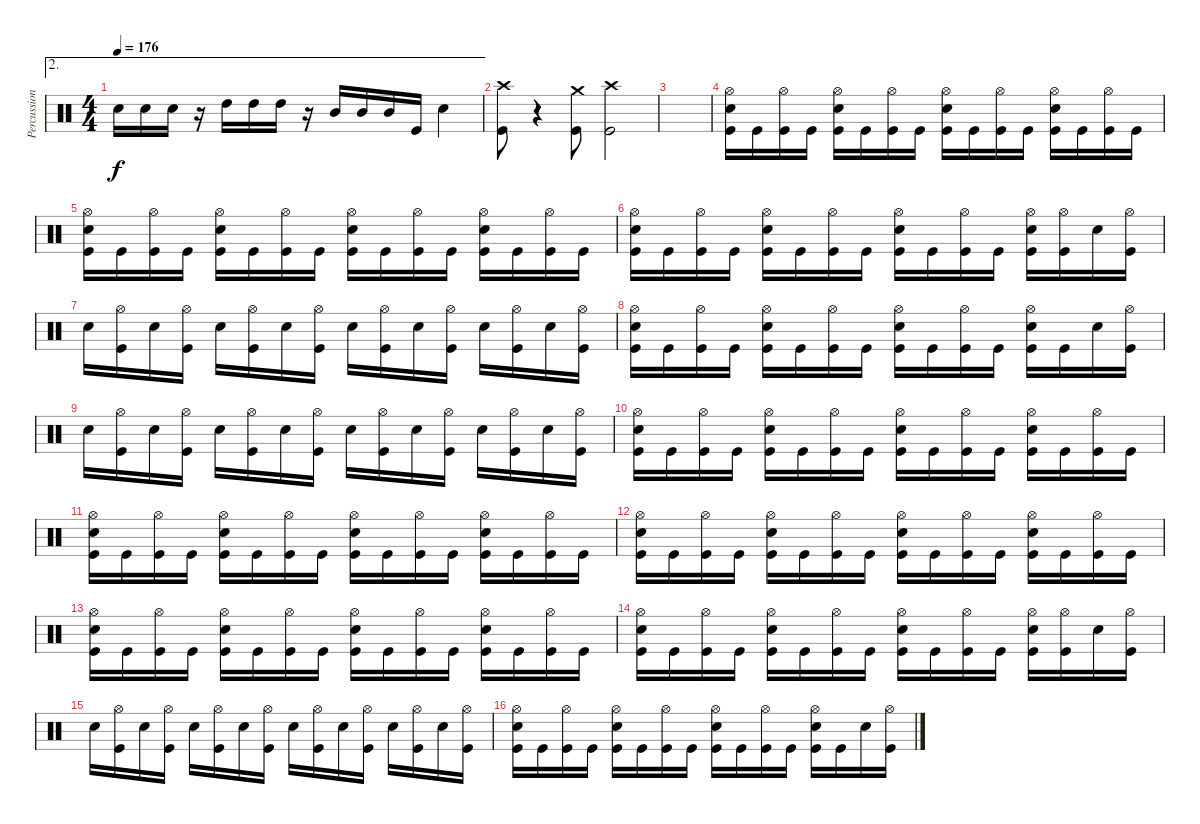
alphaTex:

\track ("Percussions" "Percussion") {instrument percussion}
\staff {score}
\articulation defaults
\ae 2
\ts (4 4)
\tempo 176
\clef neutral
\ks c "Snare (hit) 2".16{dy f} "Snare (hit) 2".16 "Snare (hit) 2".16
r.16 "High Tom (hit)".16 "High Tom (hit)".16 "High Tom (hit)".16 r.16 "Mid Tom (hit)".16 "Mid Tom (hit)".16 "Mid Tom (hit)".16 "Kick (hit)".16 "Snare (hit) 2".4 |
("Crash high (hit)" "Kick (hit)").8 r.4 ("Crash medium (hit)" "Kick (hit)").8 ("Crash high (hit)" "Kick (hit)").2 |
|
("Hi-Hat (open)" "Snare (hit) 2" "Kick (hit)").16 "Kick (hit)".16 ("Hi-Hat (open)" "Kick (hit)").16 "Kick (hit)".16 ("Hi-Hat (open)" "Snare (hit) 2" "Kick (hit)").16 "Kick (hit)".16 ("Hi-Hat (open)" "Kick (hit)").16 "Kick (hit)".16 ("Hi-Hat (open)" "Snare (hit) 2" "Kick (hit)").16 "Kick (hit)".16 ("Hi-Hat (open)" "Kick (hit)").16 "Kick (hit)".16 ("Hi-Hat (open)" "Snare (hit) 2" "Kick (hit)").16 "Kick (hit)".16 ("Hi-Hat (open)" "Kick (hit)").16 "Kick (hit)".16 |
("Hi-Hat (open)" "Snare (hit) 2" "Kick (hit)").16 "Kick (hit)".16 ("Hi-Hat (open)" "Kick (hit)").16 "Kick (hit)".16 ("Hi-Hat (open)" "Snare (hit) 2" "Kick (hit)").16 "Kick (hit)".16 ("Hi-Hat (open)" "Kick (hit)").16 "Kick (hit)".16 ("Hi-Hat (open)" "Snare (hit) 2" "Kick (hit)").16 "Kick (hit)".16 ("Hi-Hat (open)" "Kick (hit)").16 "Kick (hit)".16 ("Hi-Hat (open)" "Snare (hit) 2" "Kick (hit)").16 "Kick (hit)".16 ("Hi-Hat (open)" "Kick (hit)").16 "Kick (hit)".16 |
("Hi-Hat (open)" "Snare (hit) 2" "Kick (hit)").16 "Kick (hit)".16 ("Hi-Hat (open)" "Kick (hit)").16 "Kick (hit)".16 ("Hi-Hat (open)" "Snare (hit) 2" "Kick (hit)").16 "Kick (hit)".16 ("Hi-Hat (open)" "Kick (hit)").16 "Kick (hit)".16 ("Hi-Hat (open)" "Snare (hit) 2" "Kick (hit)").16 "Kick (hit)".16 ("Hi-Hat (open)" "Kick (hit)").16 "Kick (hit)".16 ("Hi-Hat (open)" "Snare (hit) 2" "Kick (hit)").16 ("Hi-Hat (open)" "Kick (hit)").16 "Snare (hit) 2".16 ("Hi-Hat (open)" "Kick (hit)").16 |
"Snare (hit) 2".16 ("Hi-Hat (open)" "Kick (hit)").16 "Snare (hit) 2".16 ("Hi-Hat (open)" "Kick (hit)").16 "Snare (hit) 2".16 ("Hi-Hat (open)" "Kick (hit)").16 "Snare (hit) 2".16 ("Hi-Hat (open)" "Kick (hit)").16 "Snare (hit) 2".16 ("Hi-Hat (open)" "Kick (hit)").16 "Snare (hit) 2".16 ("Hi-Hat (open)" "Kick (hit)").16 "Snare (hit) 2".16 ("Hi-Hat (open)" "Kick (hit)").16 "Snare (hit) 2".16 ("Hi-Hat (open)" "Kick (hit)").16 |
("Hi-Hat (open)" "Snare (hit) 2" "Kick (hit)").16 "Kick (hit)".16 ("Hi-Hat (open)" "Kick (hit)").16 "Kick (hit)".16 ("Hi-Hat (open)" "Snare (hit) 2" "Kick (hit)").16 "Kick (hit)".16 ("Hi-Hat (open)" "Kick (hit)").16 "Kick (hit)".16 ("Hi-Hat (open)" "Snare (hit) 2" "Kick (hit)").16 "Kick (hit)".16 ("Hi-Hat (open)" "Kick (hit)").16 "Kick (hit)".16 ("Hi-Hat (open)" "Snare (hit) 2" "Kick (hit)").16 "Kick (hit)".16 "Snare (hit) 2".16 ("Hi-Hat (open)" "Kick (hit)").16 |
"Snare (hit) 2".16 ("Hi-Hat (open)" "Kick (hit)").16 "Snare (hit) 2".16 ("Hi-Hat (open)" "Kick (hit)").16 "Snare (hit) 2".16 ("Hi-Hat (open)" "Kick (hit)").16 "Snare (hit) 2".16 ("Hi-Hat (open)" "Kick (hit)").16 "Snare (hit) 2".16 ("Hi-Hat (open)" "Kick (hit)").16 "Snare (hit) 2".16 ("Hi-Hat (open)" "Kick (hit)").16 "Snare (hit) 2".16 ("Hi-Hat (open)" "Kick (hit)").16 "Snare (hit) 2".16 ("Hi-Hat (open)" "Kick (hit)").16 |
("Hi-Hat (open)" "Snare (hit) 2" "Kick (hit)").16 "Kick (hit)".16 ("Hi-Hat (open)" "Kick (hit)").16 "Kick (hit)".16 ("Hi-Hat (open)" "Snare (hit) 2" "Kick (hit)").16 "Kick (hit)".16 ("Hi-Hat (open)" "Kick (hit)").16 "Kick (hit)".16 ("Hi-Hat (open)" "Snare (hit) 2" "Kick (hit)").16 "Kick (hit)".16 ("Hi-Hat (open)" "Kick (hit)").16 "Kick (hit)".16 ("Hi-Hat (open)" "Snare (hit) 2" "Kick (hit)").16 "Kick (hit)".16 ("Hi-Hat (open)" "Kick (hit)").16 "Kick (hit)".16 |
("Hi-Hat (open)" "Snare (hit) 2" "Kick (hit)").16 "Kick (hit)".16 ("Hi-Hat (open)" "Kick (hit)").16 "Kick (hit)".16 ("Hi-Hat (open)" "Snare (hit) 2" "Kick (hit)").16 "Kick (hit)".16 ("Hi-Hat (open)" "Kick (hit)").16 "Kick (hit)".16 ("Hi-Hat (open)" "Snare (hit) 2" "Kick (hit)").16 "Kick (hit)".16 ("Hi-Hat (open)" "Kick (hit)").16 "Kick (hit)".16 ("Hi-Hat (open)" "Snare (hit) 2" "Kick (hit)").16 "Kick (hit)".16 ("Hi-Hat (open)" "Kick (hit)").16 "Kick (hit)".16 |
("Hi-Hat (open)" "Snare (hit) 2" "Kick (hit)").16 "Kick (hit)".16 ("Hi-Hat (open)" "Kick (hit)").16 "Kick (hit)".16 ("Hi-Hat (open)" "Snare (hit) 2" "Kick (hit)").16 "Kick (hit)".16 ("Hi-Hat (open)" "Kick (hit)").16 "Kick (hit)".16 ("Hi-Hat (open)" "Snare (hit) 2" "Kick (hit)").16 "Kick (hit)".16 ("Hi-Hat (open)" "Kick (hit)").16 "Kick (hit)".16 ("Hi-Hat (open)" "Snare (hit) 2" "Kick (hit)").16 "Kick (hit)".16 ("Hi-Hat (open)" "Kick (hit)").16 "Kick (hit)".16 |
("Hi-Hat (open)" "Snare (hit) 2" "Kick (hit)").16 "Kick (hit)".16 ("Hi-Hat (open)" "Kick (hit)").16 "Kick (hit)".16 ("Hi-Hat (open)" "Snare (hit) 2" "Kick (hit)").16 "Kick (hit)".16 ("Hi-Hat (open)" "Kick (hit)").16 "Kick (hit)".16 ("Hi-Hat (open)" "Snare (hit) 2" "Kick (hit)").16 "Kick (hit)".16 ("Hi-Hat (open)" "Kick (hit)").16 "Kick (hit)".16 ("Hi-Hat (open)" "Snare (hit) 2" "Kick (hit)").16 "Kick (hit)".16 ("Hi-Hat (open)" "Kick (hit)").16 "Kick (hit)".16 |
("Hi-Hat (open)" "Snare (hit) 2" "Kick (hit)").16 "Kick (hit)".16 ("Hi-Hat (open)" "Kick (hit)").16 "Kick (hit)".16 ("Hi-Hat (open)" "Snare (hit) 2" "Kick (hit)").16 "Kick (hit)".16 ("Hi-Hat (open)" "Kick (hit)").16 "Kick (hit)".16 ("Hi-Hat (open)" "Snare (hit) 2" "Kick (hit)").16 "Kick (hit)".16 ("Hi-Hat (open)" "Kick (hit)").16 "Kick (hit)".16 ("Hi-Hat (open)" "Snare (hit) 2" "Kick (hit)").16 ("Hi-Hat (open)" "Kick (hit)").16 "Snare (hit) 2".16 ("Hi-Hat (open)" "Kick (hit)").16 |
"Snare (hit) 2".16 ("Hi-Hat (open)" "Kick (hit)").16 "Snare (hit) 2".16 ("Hi-Hat (open)" "Kick (hit)").16 "Snare (hit) 2".16 ("Hi-Hat (open)" "Kick (hit)").16 "Snare (hit) 2".16 ("Hi-Hat (open)" "Kick (hit)").16 "Snare (hit) 2".16 ("Hi-Hat (open)" "Kick (hit)").16 "Snare (hit) 2".16 ("Hi-Hat (open)" "Kick (hit)").16 "Snare (hit) 2".16 ("Hi-Hat (open)" "Kick (hit)").16 "Snare (hit) 2".16 ("Hi-Hat (open)" "Kick (hit)").16 |
("Hi-Hat (open)" "Snare (hit) 2" "Kick (hit)").16 "Kick (hit)".16 ("Hi-Hat (open)" "Kick (hit)").16 "Kick (hit)".16 ("Hi-Hat (open)" "Snare (hit) 2" "Kick (hit)").16 "Kick (hit)".16 ("Hi-Hat (open)" "Kick (hit)").16 "Kick (hit)".16 ("Hi-Hat (open)" "Snare (hit) 2" "Kick (hit)").16 "Kick (hit)".16 ("Hi-Hat (open)" "Kick (hit)").16 "Kick (hit)".16 ("Hi-Hat (open)" "Snare (hit) 2" "Kick (hit)").16 "Kick (hit)".16 "Snare (hit) 2".16 ("Hi-Hat (open)" "Kick (hit)").16
